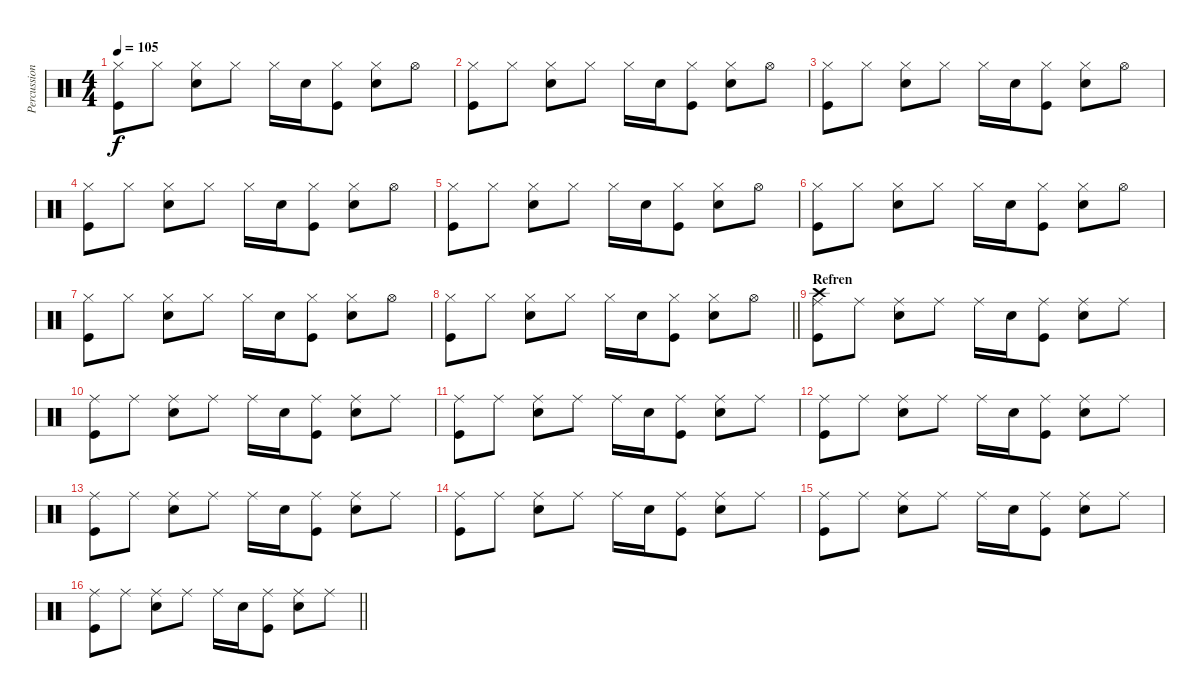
\track ("Percussion" "Percussion") {instrument percussion}
\staff {score}
\articulation defaults
\ts (4 4)
\tempo 105
\clef neutral
\ks c
("Kick (hit)" "Hi-Hat (closed)").8{dy f} "Hi-Hat (closed)".8 ("Hi-Hat (closed)" "Snare (hit) 2").8 "Hi-Hat (closed)".8 "Hi-Hat (closed)".16 "Snare (hit) 2".16 ("Hi-Hat (closed)" "Kick (hit)").8 ("Hi-Hat (closed)" "Snare (hit) 2").8 "Hi-Hat (open)".8 |
("Kick (hit)" "Hi-Hat (closed)").8 "Hi-Hat (closed)".8 ("Hi-Hat (closed)" "Snare (hit) 2").8 "Hi-Hat (closed)".8 "Hi-Hat (closed)".16 "Snare (hit) 2".16 ("Hi-Hat (closed)" "Kick (hit)").8 ("Hi-Hat (closed)" "Snare (hit) 2").8 "Hi-Hat (open)".8 |
("Kick (hit)" "Hi-Hat (closed)").8 "Hi-Hat (closed)".8 ("Hi-Hat (closed)" "Snare (hit) 2").8 "Hi-Hat (closed)".8 "Hi-Hat (closed)".16 "Snare (hit) 2".16 ("Hi-Hat (closed)" "Kick (hit)").8 ("Hi-Hat (closed)" "Snare (hit) 2").8 "Hi-Hat (open)".8 |
("Kick (hit)" "Hi-Hat (closed)").8 "Hi-Hat (closed)".8 ("Hi-Hat (closed)" "Snare (hit) 2").8 "Hi-Hat (closed)".8 "Hi-Hat (closed)".16 "Snare (hit) 2".16 ("Hi-Hat (closed)" "Kick (hit)").8 ("Hi-Hat (closed)" "Snare (hit) 2").8 "Hi-Hat (open)".8 |
("Kick (hit)" "Hi-Hat (closed)").8 "Hi-Hat (closed)".8 ("Hi-Hat (closed)" "Snare (hit) 2").8 "Hi-Hat (closed)".8 "Hi-Hat (closed)".16 "Snare (hit) 2".16 ("Hi-Hat (closed)" "Kick (hit)").8 ("Hi-Hat (closed)" "Snare (hit) 2").8 "Hi-Hat (open)".8 |
("Kick (hit)" "Hi-Hat (closed)").8 "Hi-Hat (closed)".8 ("Hi-Hat (closed)" "Snare (hit) 2").8 "Hi-Hat (closed)".8 "Hi-Hat (closed)".16 "Snare (hit) 2".16 ("Hi-Hat (closed)" "Kick (hit)").8 ("Hi-Hat (closed)" "Snare (hit) 2").8 "Hi-Hat (open)".8 |
("Kick (hit)" "Hi-Hat (closed)").8 "Hi-Hat (closed)".8 ("Hi-Hat (closed)" "Snare (hit) 2").8 "Hi-Hat (closed)".8 "Hi-Hat (closed)".16 "Snare (hit) 2".16 ("Hi-Hat (closed)" "Kick (hit)").8 ("Hi-Hat (closed)" "Snare (hit) 2").8 "Hi-Hat (open)".8 |
\barLineRight lightlight
("Kick (hit)" "Hi-Hat (closed)").8 "Hi-Hat (closed)".8 ("Hi-Hat (closed)" "Snare (hit) 2").8 "Hi-Hat (closed)".8 "Hi-Hat (closed)".16 "Snare (hit) 2".16 ("Hi-Hat (closed)" "Kick (hit)").8 ("Hi-Hat (closed)" "Snare (hit) 2").8 "Hi-Hat (open)".8 |
\section ("" "Refren")
("Kick (hit)" "Crash high (hit)" "Ride (middle)").8 "Ride (middle)".8 ("Snare (hit) 2" "Ride (middle)").8 "Ride (middle)".8 "Ride (middle)".16 "Snare (hit) 2".16 ("Kick (hit)" "Ride (middle)").8 ("Snare (hit) 2" "Ride (middle)").8 "Ride (middle)".8 |
("Kick (hit)" "Ride (middle)").8 "Ride (middle)".8 ("Snare (hit) 2" "Ride (middle)").8 "Ride (middle)".8 "Ride (middle)".16 "Snare (hit) 2".16 ("Kick (hit)" "Ride (middle)").8 ("Snare (hit) 2" "Ride (middle)").8 "Ride (middle)".8 |
("Kick (hit)" "Ride (middle)").8 "Ride (middle)".8 ("Snare (hit) 2" "Ride (middle)").8 "Ride (middle)".8 "Ride (middle)".16 "Snare (hit) 2".16 ("Kick (hit)" "Ride (middle)").8 ("Snare (hit) 2" "Ride (middle)").8 "Ride (middle)".8 |
("Kick (hit)" "Ride (middle)").8 "Ride (middle)".8 ("Snare (hit) 2" "Ride (middle)").8 "Ride (middle)".8 "Ride (middle)".16 "Snare (hit) 2".16 ("Kick (hit)" "Ride (middle)").8 ("Snare (hit) 2" "Ride (middle)").8 "Ride (middle)".8 |
("Kick (hit)" "Ride (middle)").8 "Ride (middle)".8 ("Snare (hit) 2" "Ride (middle)").8 "Ride (middle)".8 "Ride (middle)".16 "Snare (hit) 2".16 ("Kick (hit)" "Ride (middle)").8 ("Snare (hit) 2" "Ride (middle)").8 "Ride (middle)".8 |
("Kick (hit)" "Ride (middle)").8 "Ride (middle)".8 ("Snare (hit) 2" "Ride (middle)").8 "Ride (middle)".8 "Ride (middle)".16 "Snare (hit) 2".16 ("Kick (hit)" "Ride (middle)").8 ("Snare (hit) 2" "Ride (middle)").8 "Ride (middle)".8 |
("Kick (hit)" "Ride (middle)").8 "Ride (middle)".8 ("Snare (hit) 2" "Ride (middle)").8 "Ride (middle)".8 "Ride (middle)".16 "Snare (hit) 2".16 ("Kick (hit)" "Ride (middle)").8 ("Snare (hit) 2" "Ride (middle)").8 "Ride (middle)".8 |
\barLineRight lightlight
("Kick (hit)" "Ride (middle)").8 "Ride (middle)".8 ("Snare (hit) 2" "Ride (middle)").8 "Ride (middle)".8 "Ride (middle)".16 "Snare (hit) 2".16 ("Kick (hit)" "Ride (middle)").8 ("Snare (hit) 2" "Ride (middle)").8 "Ride (middle)".8
